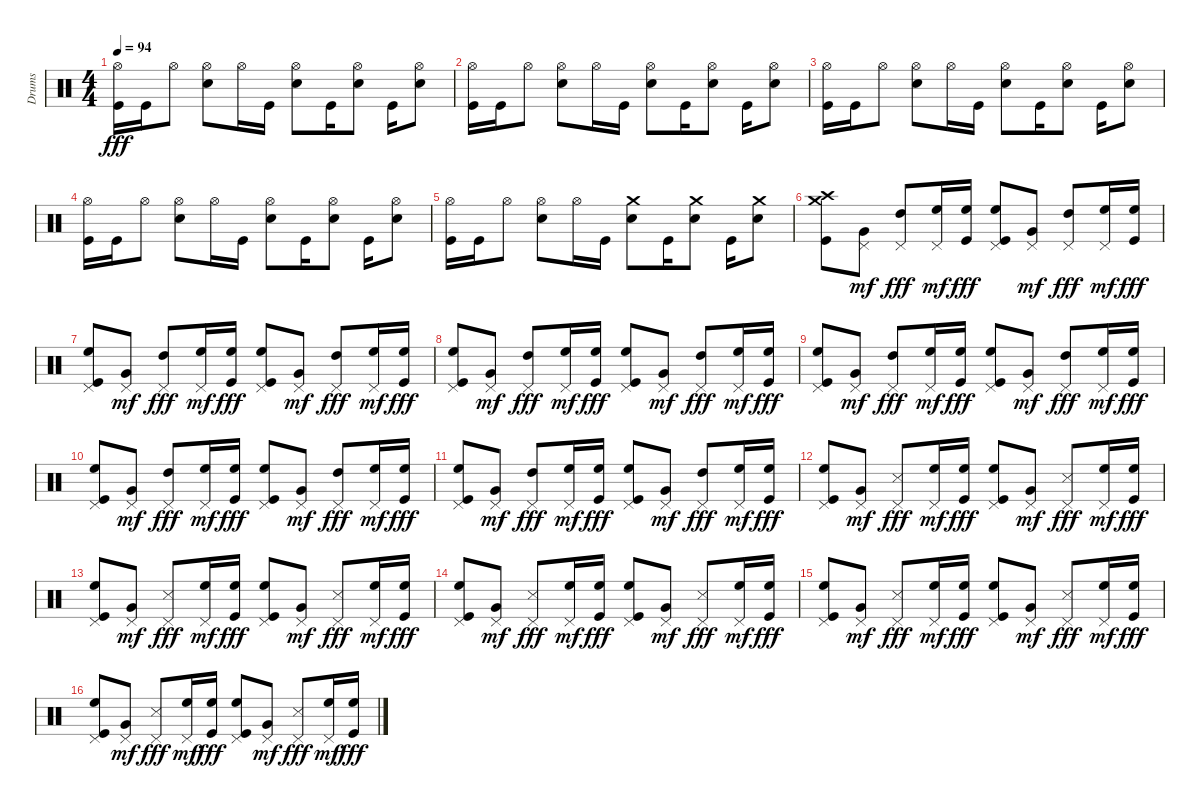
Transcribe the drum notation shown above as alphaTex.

\track ("Drums" "Drums") {instrument percussion}
\staff {score}
\articulation defaults
\ts (4 4)
\tempo 94
\clef neutral
\ks c
("Hi-Hat (open)" "Kick (hit)").16{dy fff} "Kick (hit)".16 "Hi-Hat (open)".8 ("Hi-Hat (open)" "Snare (hit) 2").8 "Hi-Hat (open)".16 "Kick (hit)".16 ("Hi-Hat (open)" "Snare (hit) 2").8 "Kick (hit)".16 ("Hi-Hat (open)" "Snare (hit) 2").8 "Kick (hit)".16 ("Hi-Hat (open)" "Snare (hit) 2").8 |
("Hi-Hat (open)" "Kick (hit)").16 "Kick (hit)".16 "Hi-Hat (open)".8 ("Hi-Hat (open)" "Snare (hit) 2").8 "Hi-Hat (open)".16 "Kick (hit)".16 ("Hi-Hat (open)" "Snare (hit) 2").8 "Kick (hit)".16 ("Hi-Hat (open)" "Snare (hit) 2").8 "Kick (hit)".16 ("Hi-Hat (open)" "Snare (hit) 2").8 |
("Hi-Hat (open)" "Kick (hit)").16 "Kick (hit)".16 "Hi-Hat (open)".8 ("Hi-Hat (open)" "Snare (hit) 2").8 "Hi-Hat (open)".16 "Kick (hit)".16 ("Hi-Hat (open)" "Snare (hit) 2").8 "Kick (hit)".16 ("Hi-Hat (open)" "Snare (hit) 2").8 "Kick (hit)".16 ("Hi-Hat (open)" "Snare (hit) 2").8 |
("Hi-Hat (open)" "Kick (hit)").16 "Kick (hit)".16 "Hi-Hat (open)".8 ("Hi-Hat (open)" "Snare (hit) 2").8 "Hi-Hat (open)".16 "Kick (hit)".16 ("Hi-Hat (open)" "Snare (hit) 2").8 "Kick (hit)".16 ("Hi-Hat (open)" "Snare (hit) 2").8 "Kick (hit)".16 ("Hi-Hat (open)" "Snare (hit) 2").8 |
("Hi-Hat (open)" "Kick (hit)").16 "Kick (hit)".16 "Hi-Hat (open)".8 ("Hi-Hat (open)" "Snare (hit) 2").8 "Hi-Hat (open)".16 "Kick (hit)".16 ("Crash medium (hit)" "Snare (hit) 2").8 "Kick (hit)".16 ("Crash medium (hit)" "Snare (hit) 2").8 "Kick (hit)".16 ("Crash medium (hit)" "Snare (hit) 2").8 |
("Crash high (hit)" "Crash medium (hit)" "Kick (hit)").8 ("Pedal Hi-Hat (hit)" "Very Low Tom (hit)").8{dy mf} ("Pedal Hi-Hat (hit)" "High Tom (hit)").8{dy fff} ("Pedal Hi-Hat (hit)" "High Floor Tom (hit)").16{dy mf} ("High Floor Tom (hit)" "Kick (hit)").16{dy fff} ("Pedal Hi-Hat (hit)" "High Floor Tom (hit)" "Kick (hit)").8 ("Pedal Hi-Hat (hit)" "Very Low Tom (hit)").8{dy mf} ("Pedal Hi-Hat (hit)" "High Tom (hit)").8{dy fff} ("Pedal Hi-Hat (hit)" "High Floor Tom (hit)").16{dy mf} ("High Floor Tom (hit)" "Kick (hit)").16{dy fff} |
("Pedal Hi-Hat (hit)" "High Floor Tom (hit)" "Kick (hit)").8 ("Pedal Hi-Hat (hit)" "Very Low Tom (hit)").8{dy mf} ("Pedal Hi-Hat (hit)" "High Tom (hit)").8{dy fff} ("Pedal Hi-Hat (hit)" "High Floor Tom (hit)").16{dy mf} ("High Floor Tom (hit)" "Kick (hit)").16{dy fff} ("Pedal Hi-Hat (hit)" "High Floor Tom (hit)" "Kick (hit)").8 ("Pedal Hi-Hat (hit)" "Very Low Tom (hit)").8{dy mf} ("Pedal Hi-Hat (hit)" "High Tom (hit)").8{dy fff} ("Pedal Hi-Hat (hit)" "High Floor Tom (hit)").16{dy mf} ("High Floor Tom (hit)" "Kick (hit)").16{dy fff} |
("Pedal Hi-Hat (hit)" "High Floor Tom (hit)" "Kick (hit)").8 ("Pedal Hi-Hat (hit)" "Very Low Tom (hit)").8{dy mf} ("Pedal Hi-Hat (hit)" "High Tom (hit)").8{dy fff} ("Pedal Hi-Hat (hit)" "High Floor Tom (hit)").16{dy mf} ("High Floor Tom (hit)" "Kick (hit)").16{dy fff} ("Pedal Hi-Hat (hit)" "High Floor Tom (hit)" "Kick (hit)").8 ("Pedal Hi-Hat (hit)" "Very Low Tom (hit)").8{dy mf} ("Pedal Hi-Hat (hit)" "High Tom (hit)").8{dy fff} ("Pedal Hi-Hat (hit)" "High Floor Tom (hit)").16{dy mf} ("High Floor Tom (hit)" "Kick (hit)").16{dy fff} |
("Pedal Hi-Hat (hit)" "High Floor Tom (hit)" "Kick (hit)").8 ("Pedal Hi-Hat (hit)" "Very Low Tom (hit)").8{dy mf} ("Pedal Hi-Hat (hit)" "High Tom (hit)").8{dy fff} ("Pedal Hi-Hat (hit)" "High Floor Tom (hit)").16{dy mf} ("High Floor Tom (hit)" "Kick (hit)").16{dy fff} ("Pedal Hi-Hat (hit)" "High Floor Tom (hit)" "Kick (hit)").8 ("Pedal Hi-Hat (hit)" "Very Low Tom (hit)").8{dy mf} ("Pedal Hi-Hat (hit)" "High Tom (hit)").8{dy fff} ("Pedal Hi-Hat (hit)" "High Floor Tom (hit)").16{dy mf} ("High Floor Tom (hit)" "Kick (hit)").16{dy fff} |
("Pedal Hi-Hat (hit)" "High Floor Tom (hit)" "Kick (hit)").8 ("Pedal Hi-Hat (hit)" "Very Low Tom (hit)").8{dy mf} ("Pedal Hi-Hat (hit)" "High Tom (hit)").8{dy fff} ("Pedal Hi-Hat (hit)" "High Floor Tom (hit)").16{dy mf} ("High Floor Tom (hit)" "Kick (hit)").16{dy fff} ("Pedal Hi-Hat (hit)" "High Floor Tom (hit)" "Kick (hit)").8 ("Pedal Hi-Hat (hit)" "Very Low Tom (hit)").8{dy mf} ("Pedal Hi-Hat (hit)" "High Tom (hit)").8{dy fff} ("Pedal Hi-Hat (hit)" "High Floor Tom (hit)").16{dy mf} ("High Floor Tom (hit)" "Kick (hit)").16{dy fff} |
("Pedal Hi-Hat (hit)" "High Floor Tom (hit)" "Kick (hit)").8 ("Pedal Hi-Hat (hit)" "Very Low Tom (hit)").8{dy mf} ("Pedal Hi-Hat (hit)" "High Tom (hit)").8{dy fff} ("Pedal Hi-Hat (hit)" "High Floor Tom (hit)").16{dy mf} ("High Floor Tom (hit)" "Kick (hit)").16{dy fff} ("Pedal Hi-Hat (hit)" "High Floor Tom (hit)" "Kick (hit)").8 ("Pedal Hi-Hat (hit)" "Very Low Tom (hit)").8{dy mf} ("Pedal Hi-Hat (hit)" "High Tom (hit)").8{dy fff} ("Pedal Hi-Hat (hit)" "High Floor Tom (hit)").16{dy mf} ("High Floor Tom (hit)" "Kick (hit)").16{dy fff} |
("Pedal Hi-Hat (hit)" "High Floor Tom (hit)" "Kick (hit)").8 ("Pedal Hi-Hat (hit)" "Very Low Tom (hit)").8{dy mf} ("Pedal Hi-Hat (hit)" "Snare (side stick) 3").8{dy fff} ("Pedal Hi-Hat (hit)" "High Floor Tom (hit)").16{dy mf} ("High Floor Tom (hit)" "Kick (hit)").16{dy fff} ("Pedal Hi-Hat (hit)" "High Floor Tom (hit)" "Kick (hit)").8 ("Pedal Hi-Hat (hit)" "Very Low Tom (hit)").8{dy mf} ("Pedal Hi-Hat (hit)" "Snare (side stick) 3").8{dy fff} ("Pedal Hi-Hat (hit)" "High Floor Tom (hit)").16{dy mf} ("High Floor Tom (hit)" "Kick (hit)").16{dy fff} |
("Pedal Hi-Hat (hit)" "High Floor Tom (hit)" "Kick (hit)").8 ("Pedal Hi-Hat (hit)" "Very Low Tom (hit)").8{dy mf} ("Pedal Hi-Hat (hit)" "Snare (side stick) 3").8{dy fff} ("Pedal Hi-Hat (hit)" "High Floor Tom (hit)").16{dy mf} ("High Floor Tom (hit)" "Kick (hit)").16{dy fff} ("Pedal Hi-Hat (hit)" "High Floor Tom (hit)" "Kick (hit)").8 ("Pedal Hi-Hat (hit)" "Very Low Tom (hit)").8{dy mf} ("Pedal Hi-Hat (hit)" "Snare (side stick) 3").8{dy fff} ("Pedal Hi-Hat (hit)" "High Floor Tom (hit)").16{dy mf} ("High Floor Tom (hit)" "Kick (hit)").16{dy fff} |
("Pedal Hi-Hat (hit)" "High Floor Tom (hit)" "Kick (hit)").8 ("Pedal Hi-Hat (hit)" "Very Low Tom (hit)").8{dy mf} ("Pedal Hi-Hat (hit)" "Snare (side stick) 3").8{dy fff} ("Pedal Hi-Hat (hit)" "High Floor Tom (hit)").16{dy mf} ("High Floor Tom (hit)" "Kick (hit)").16{dy fff} ("Pedal Hi-Hat (hit)" "High Floor Tom (hit)" "Kick (hit)").8 ("Pedal Hi-Hat (hit)" "Very Low Tom (hit)").8{dy mf} ("Pedal Hi-Hat (hit)" "Snare (side stick) 3").8{dy fff} ("Pedal Hi-Hat (hit)" "High Floor Tom (hit)").16{dy mf} ("High Floor Tom (hit)" "Kick (hit)").16{dy fff} |
("Pedal Hi-Hat (hit)" "High Floor Tom (hit)" "Kick (hit)").8 ("Pedal Hi-Hat (hit)" "Very Low Tom (hit)").8{dy mf} ("Pedal Hi-Hat (hit)" "Snare (side stick) 3").8{dy fff} ("Pedal Hi-Hat (hit)" "High Floor Tom (hit)").16{dy mf} ("High Floor Tom (hit)" "Kick (hit)").16{dy fff} ("Pedal Hi-Hat (hit)" "High Floor Tom (hit)" "Kick (hit)").8 ("Pedal Hi-Hat (hit)" "Very Low Tom (hit)").8{dy mf} ("Pedal Hi-Hat (hit)" "Snare (side stick) 3").8{dy fff} ("Pedal Hi-Hat (hit)" "High Floor Tom (hit)").16{dy mf} ("High Floor Tom (hit)" "Kick (hit)").16{dy fff} |
("Pedal Hi-Hat (hit)" "High Floor Tom (hit)" "Kick (hit)").8 ("Pedal Hi-Hat (hit)" "Very Low Tom (hit)").8{dy mf} ("Pedal Hi-Hat (hit)" "Snare (side stick) 3").8{dy fff} ("Pedal Hi-Hat (hit)" "High Floor Tom (hit)").16{dy mf} ("High Floor Tom (hit)" "Kick (hit)").16{dy fff} ("Pedal Hi-Hat (hit)" "High Floor Tom (hit)" "Kick (hit)").8 ("Pedal Hi-Hat (hit)" "Very Low Tom (hit)").8{dy mf} ("Pedal Hi-Hat (hit)" "Snare (side stick) 3").8{dy fff} ("Pedal Hi-Hat (hit)" "High Floor Tom (hit)").16{dy mf} ("High Floor Tom (hit)" "Kick (hit)").16{dy fff}
